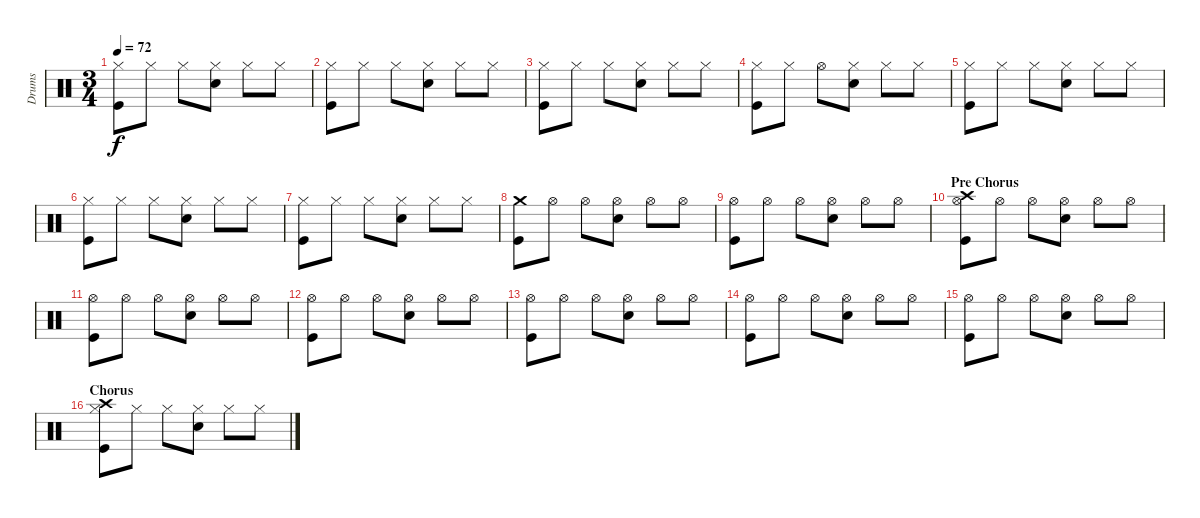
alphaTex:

\track ("Drums" "Drums") {instrument percussion}
\staff {score}
\articulation defaults
\ts (3 4)
\tempo 72
\clef neutral
\ks c
("Hi-Hat (closed)" "Kick (hit)").8{dy f} "Hi-Hat (closed)".8 "Hi-Hat (closed)".8 ("Hi-Hat (closed)" "Snare (hit) 2").8 "Hi-Hat (closed)".8 "Hi-Hat (closed)".8 |
("Hi-Hat (closed)" "Kick (hit)").8 "Hi-Hat (closed)".8 "Hi-Hat (closed)".8 ("Hi-Hat (closed)" "Snare (hit) 2").8 "Hi-Hat (closed)".8 "Hi-Hat (closed)".8 |
("Hi-Hat (closed)" "Kick (hit)").8 "Hi-Hat (closed)".8 "Hi-Hat (closed)".8 ("Hi-Hat (closed)" "Snare (hit) 2").8 "Hi-Hat (closed)".8 "Hi-Hat (closed)".8 |
("Hi-Hat (closed)" "Kick (hit)").8 "Hi-Hat (closed)".8 "Hi-Hat (open)".8 ("Hi-Hat (closed)" "Snare (hit) 2").8 "Hi-Hat (closed)".8 "Hi-Hat (closed)".8 |
("Hi-Hat (closed)" "Kick (hit)").8 "Hi-Hat (closed)".8 "Hi-Hat (closed)".8 ("Hi-Hat (closed)" "Snare (hit) 2").8 "Hi-Hat (closed)".8 "Hi-Hat (closed)".8 |
("Hi-Hat (closed)" "Kick (hit)").8 "Hi-Hat (closed)".8 "Hi-Hat (closed)".8 ("Hi-Hat (closed)" "Snare (hit) 2").8 "Hi-Hat (closed)".8 "Hi-Hat (closed)".8 |
("Hi-Hat (closed)" "Kick (hit)").8 "Hi-Hat (closed)".8 "Hi-Hat (closed)".8 ("Hi-Hat (closed)" "Snare (hit) 2").8 "Hi-Hat (closed)".8 "Hi-Hat (closed)".8 |
("Crash medium (hit)" "Kick (hit)").8 "Hi-Hat (open)".8 "Hi-Hat (open)".8 ("Hi-Hat (open)" "Snare (hit) 2").8 "Hi-Hat (open)".8 "Hi-Hat (open)".8 |
("Hi-Hat (open)" "Kick (hit)").8 "Hi-Hat (open)".8 "Hi-Hat (open)".8 ("Hi-Hat (open)" "Snare (hit) 2").8 "Hi-Hat (open)".8 "Hi-Hat (open)".8 |
\section ("" "Pre Chorus")
("Hi-Hat (open)" "Crash high (hit)" "Kick (hit)").8 "Hi-Hat (open)".8 "Hi-Hat (open)".8 ("Hi-Hat (open)" "Snare (hit) 2").8 "Hi-Hat (open)".8 "Hi-Hat (open)".8 |
("Hi-Hat (open)" "Kick (hit)").8 "Hi-Hat (open)".8 "Hi-Hat (open)".8 ("Hi-Hat (open)" "Snare (hit) 2").8 "Hi-Hat (open)".8 "Hi-Hat (open)".8 |
("Hi-Hat (open)" "Kick (hit)").8 "Hi-Hat (open)".8 "Hi-Hat (open)".8 ("Hi-Hat (open)" "Snare (hit) 2").8 "Hi-Hat (open)".8 "Hi-Hat (open)".8 |
("Hi-Hat (open)" "Kick (hit)").8 "Hi-Hat (open)".8 "Hi-Hat (open)".8 ("Hi-Hat (open)" "Snare (hit) 2").8 "Hi-Hat (open)".8 "Hi-Hat (open)".8 |
("Hi-Hat (open)" "Kick (hit)").8 "Hi-Hat (open)".8 "Hi-Hat (open)".8 ("Hi-Hat (open)" "Snare (hit) 2").8 "Hi-Hat (open)".8 "Hi-Hat (open)".8 |
("Hi-Hat (open)" "Kick (hit)").8 "Hi-Hat (open)".8 "Hi-Hat (open)".8 ("Hi-Hat (open)" "Snare (hit) 2").8 "Hi-Hat (open)".8 "Hi-Hat (open)".8 |
\section ("" "Chorus")
("Hi-Hat (closed)" "Crash high (hit)" "Kick (hit)").8 "Hi-Hat (closed)".8 "Hi-Hat (closed)".8 ("Hi-Hat (closed)" "Snare (hit) 2").8 "Hi-Hat (closed)".8 "Hi-Hat (closed)".8
